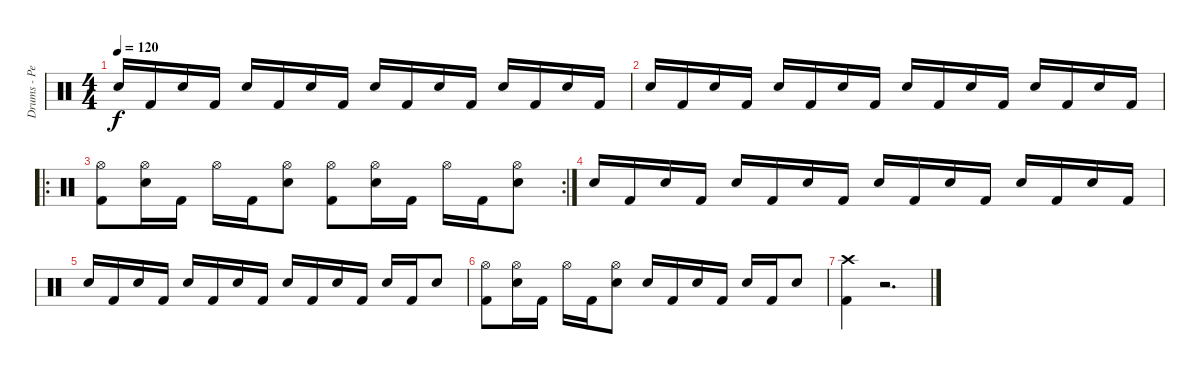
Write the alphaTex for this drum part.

\track ("Drums - Pete Finestone" "Drums - Pe") {instrument percussion}
\staff {score}
\articulation defaults
\ts (4 4)
\tempo 120
\clef neutral
\ks c "Electric Snare (hit)".16{dy f} "Kick (hit) 2".16 "Electric Snare (hit)".16 "Kick (hit) 2".16 "Electric Snare (hit)".16 "Kick (hit) 2".16 "Electric Snare (hit)".16 "Kick (hit) 2".16 "Electric Snare (hit)".16 "Kick (hit) 2".16 "Electric Snare (hit)".16 "Kick (hit) 2".16 "Electric Snare (hit)".16 "Kick (hit) 2".16 "Electric Snare (hit)".16 "Kick (hit) 2".16
|
"Electric Snare (hit)".16 "Kick (hit) 2".16 "Electric Snare (hit)".16 "Kick (hit) 2".16 "Electric Snare (hit)".16 "Kick (hit) 2".16 "Electric Snare (hit)".16 "Kick (hit) 2".16 "Electric Snare (hit)".16 "Kick (hit) 2".16 "Electric Snare (hit)".16 "Kick (hit) 2".16 "Electric Snare (hit)".16 "Kick (hit) 2".16 "Electric Snare (hit)".16 "Kick (hit) 2".16 |
\ro
\rc 2
("Hi-Hat (open)" "Kick (hit) 2").8 ("Hi-Hat (open)" "Electric Snare (hit)").16 "Kick (hit) 2".16 "Hi-Hat (open)".16 "Kick (hit) 2".16 ("Hi-Hat (open)" "Electric Snare (hit)").8 ("Hi-Hat (open)" "Kick (hit) 2").8 ("Hi-Hat (open)" "Electric Snare (hit)").16 "Kick (hit) 2".16 "Hi-Hat (open)".16 "Kick (hit) 2".16 ("Hi-Hat (open)" "Electric Snare (hit)").8 |
"Electric Snare (hit)".16 "Kick (hit) 2".16 "Electric Snare (hit)".16 "Kick (hit) 2".16 "Electric Snare (hit)".16 "Kick (hit) 2".16 "Electric Snare (hit)".16 "Kick (hit) 2".16 "Electric Snare (hit)".16 "Kick (hit) 2".16 "Electric Snare (hit)".16 "Kick (hit) 2".16 "Electric Snare (hit)".16 "Kick (hit) 2".16 "Electric Snare (hit)".16 "Kick (hit) 2".16 |
"Electric Snare (hit)".16 "Kick (hit) 2".16 "Electric Snare (hit)".16 "Kick (hit) 2".16 "Electric Snare (hit)".16 "Kick (hit) 2".16 "Electric Snare (hit)".16 "Kick (hit) 2".16 "Electric Snare (hit)".16 "Kick (hit) 2".16 "Electric Snare (hit)".16 "Kick (hit) 2".16 "Electric Snare (hit)".16 "Kick (hit) 2".16 "Electric Snare (hit)".8 |
("Hi-Hat (open)" "Kick (hit) 2").8 ("Hi-Hat (open)" "Electric Snare (hit)").16 "Kick (hit) 2".16 "Hi-Hat (open)".16 "Kick (hit) 2".16 ("Hi-Hat (open)" "Electric Snare (hit)").8 "Electric Snare (hit)".16 "Kick (hit) 2".16 "Electric Snare (hit)".16 "Kick (hit) 2".16 "Electric Snare (hit)".16 "Kick (hit) 2".16 "Electric Snare (hit)".8 |
("Crash high (hit)" "Kick (hit) 2").4 r.2{d}
